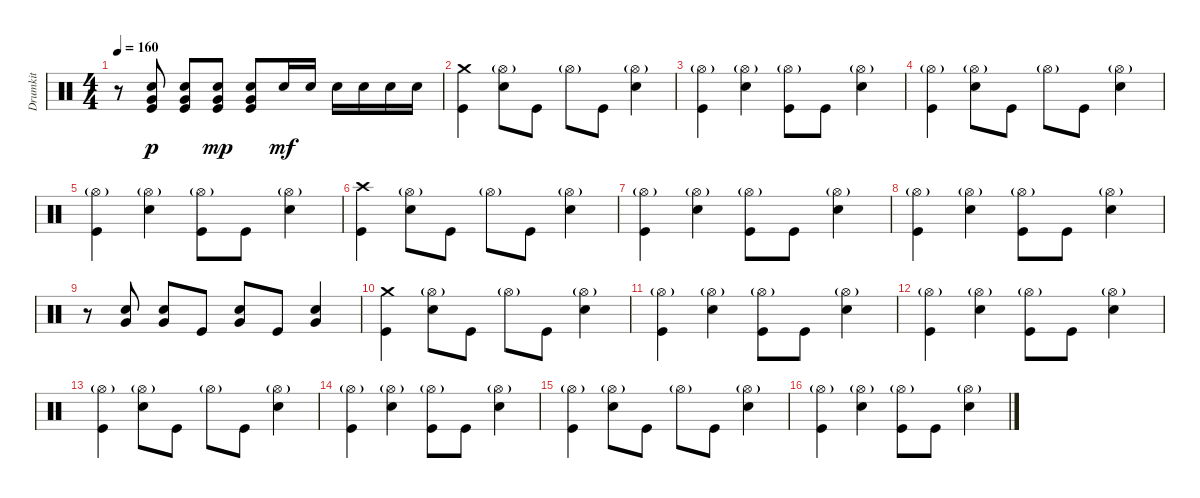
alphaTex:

\track ("Drumkit" "Drumkit") {instrument percussion}
\staff {score}
\articulation defaults
\ts (4 4)
\tempo 160
\clef neutral
\ks c
r.8{dy mf} ("Kick (hit)" "Very Low Tom (hit)" "Snare (hit) 2").8{dy p} ("Kick (hit)" "Very Low Tom (hit)" "Snare (hit) 2").8 ("Kick (hit)" "Very Low Tom (hit)" "Snare (hit) 2").8{dy mp} ("Kick (hit)" "Very Low Tom (hit)" "Snare (hit) 2").8 "Snare (hit) 2".16{dy mf} "Snare (hit) 2".16 "Snare (hit) 2".16 "Snare (hit) 2".16 "Snare (hit) 2".16 "Snare (hit) 2".16 |
("Kick (hit)" "Crash medium (hit)").4 ("Snare (hit) 2" "Hi-Hat (open)"{g}).8 "Kick (hit)".8 "Hi-Hat (open)"{g}.8 "Kick (hit)".8 ("Snare (hit) 2" "Hi-Hat (open)"{g}).4 |
("Kick (hit)" "Hi-Hat (open)"{g}).4 ("Hi-Hat (open)"{g} "Snare (hit) 2").4 ("Kick (hit)" "Hi-Hat (open)"{g}).8 "Kick (hit)".8 ("Snare (hit) 2" "Hi-Hat (open)"{g}).4 |
("Kick (hit)" "Hi-Hat (open)"{g}).4 ("Snare (hit) 2" "Hi-Hat (open)"{g}).8 "Kick (hit)".8 "Hi-Hat (open)"{g}.8 "Kick (hit)".8 ("Snare (hit) 2" "Hi-Hat (open)"{g}).4 |
("Kick (hit)" "Hi-Hat (open)"{g}).4 ("Hi-Hat (open)"{g} "Snare (hit) 2").4 ("Kick (hit)" "Hi-Hat (open)"{g}).8 "Kick (hit)".8 ("Snare (hit) 2" "Hi-Hat (open)"{g}).4 |
("Kick (hit)" "Crash high (hit)").4 ("Snare (hit) 2" "Hi-Hat (open)"{g}).8 "Kick (hit)".8 "Hi-Hat (open)"{g}.8 "Kick (hit)".8 ("Snare (hit) 2" "Hi-Hat (open)"{g}).4 |
("Kick (hit)" "Hi-Hat (open)"{g}).4 ("Hi-Hat (open)"{g} "Snare (hit) 2").4 ("Kick (hit)" "Hi-Hat (open)"{g}).8 "Kick (hit)".8 ("Snare (hit) 2" "Hi-Hat (open)"{g}).4 |
("Kick (hit)" "Hi-Hat (open)"{g}).4 ("Hi-Hat (open)"{g} "Snare (hit) 2").4 ("Kick (hit)" "Hi-Hat (open)"{g}).8 "Kick (hit)".8 ("Snare (hit) 2" "Hi-Hat (open)"{g}).4 |
r.8 ("Snare (hit) 2" "Very Low Tom (hit)").8 ("Snare (hit) 2" "Very Low Tom (hit)").8 "Kick (hit)".8 ("Snare (hit) 2" "Very Low Tom (hit)").8 "Kick (hit)".8 ("Snare (hit) 2" "Very Low Tom (hit)").4 |
("Kick (hit)" "Crash medium (hit)").4 ("Snare (hit) 2" "Hi-Hat (open)"{g}).8 "Kick (hit)".8 "Hi-Hat (open)"{g}.8 "Kick (hit)".8 ("Snare (hit) 2" "Hi-Hat (open)"{g}).4 |
("Kick (hit)" "Hi-Hat (open)"{g}).4 ("Hi-Hat (open)"{g} "Snare (hit) 2").4 ("Kick (hit)" "Hi-Hat (open)"{g}).8 "Kick (hit)".8 ("Snare (hit) 2" "Hi-Hat (open)"{g}).4 |
("Kick (hit)" "Hi-Hat (open)"{g}).4 ("Hi-Hat (open)"{g} "Snare (hit) 2").4 ("Kick (hit)" "Hi-Hat (open)"{g}).8 "Kick (hit)".8 ("Snare (hit) 2" "Hi-Hat (open)"{g}).4 |
("Kick (hit)" "Hi-Hat (open)"{g}).4 ("Snare (hit) 2" "Hi-Hat (open)"{g}).8 "Kick (hit)".8 "Hi-Hat (open)"{g}.8 "Kick (hit)".8 ("Snare (hit) 2" "Hi-Hat (open)"{g}).4 |
("Kick (hit)" "Hi-Hat (open)"{g}).4 ("Hi-Hat (open)"{g} "Snare (hit) 2").4 ("Kick (hit)" "Hi-Hat (open)"{g}).8 "Kick (hit)".8 ("Snare (hit) 2" "Hi-Hat (open)"{g}).4 |
("Kick (hit)" "Hi-Hat (open)"{g}).4 ("Snare (hit) 2" "Hi-Hat (open)"{g}).8 "Kick (hit)".8 "Hi-Hat (open)"{g}.8 "Kick (hit)".8 ("Snare (hit) 2" "Hi-Hat (open)"{g}).4 |
("Kick (hit)" "Hi-Hat (open)"{g}).4 ("Hi-Hat (open)"{g} "Snare (hit) 2").4 ("Kick (hit)" "Hi-Hat (open)"{g}).8 "Kick (hit)".8 ("Snare (hit) 2" "Hi-Hat (open)"{g}).4
